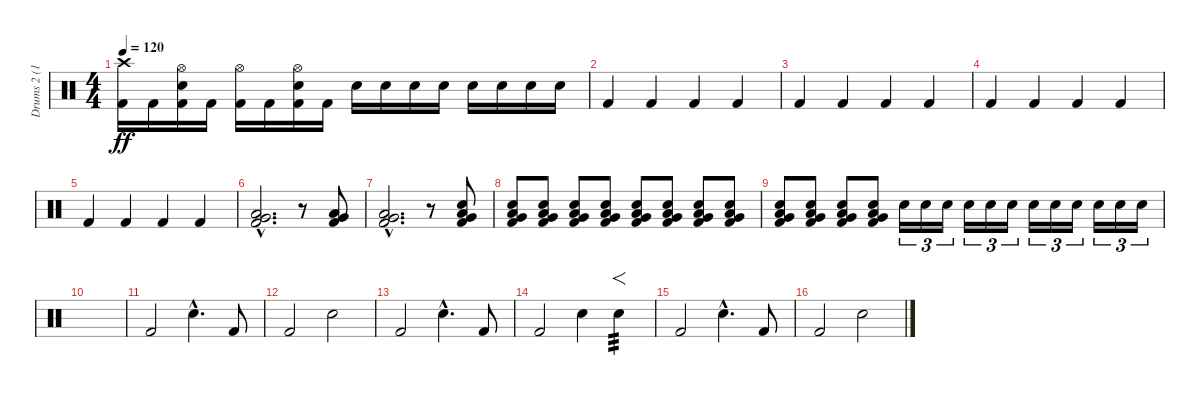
\track ("Drums 2 (16)" "Drums 2 (1") {instrument percussion}
\staff {score}
\articulation defaults
\ts (4 4)
\tempo 120
\clef neutral
\ks c
("Kick (hit) 2" "Crash high (hit)").16{dy ff} "Kick (hit) 2".16 ("Kick (hit) 2" "Snare (hit) 2" "Hi-Hat (open)").16 "Kick (hit) 2".16 ("Kick (hit) 2" "Hi-Hat (open)").16 "Kick (hit) 2".16 ("Kick (hit) 2" "Snare (hit) 2" "Hi-Hat (open)").16 "Kick (hit) 2".16 "Snare (hit) 2".16 "Snare (hit) 2".16 "Snare (hit) 2".16 "Snare (hit) 2".16 "Snare (hit) 2".16 "Snare (hit) 2".16 "Snare (hit) 2".16 "Snare (hit) 2".16 |
"Kick (hit) 2".4 "Kick (hit) 2".4 "Kick (hit) 2".4 "Kick (hit) 2".4 |
"Kick (hit) 2".4 "Kick (hit) 2".4 "Kick (hit) 2".4 "Kick (hit) 2".4 |
"Kick (hit) 2".4 "Kick (hit) 2".4 "Kick (hit) 2".4 "Kick (hit) 2".4 |
"Kick (hit) 2".4 "Kick (hit) 2".4 "Kick (hit) 2".4 "Kick (hit) 2".4 |
("Kick (hit) 2"{hac} "Low Floor Tom (hit)"{hac} "Very Low Tom (hit)"{hac}).2{d} r.8 ("Kick (hit) 2" "Low Floor Tom (hit)" "Very Low Tom (hit)").8 |
("Kick (hit) 2"{hac} "Low Floor Tom (hit)"{hac} "Very Low Tom (hit)"{hac}).2{d} r.8 ("Kick (hit) 2" "Snare (hit) 2" "Low Floor Tom (hit)" "Very Low Tom (hit)").8 |
("Kick (hit) 2" "Snare (hit) 2" "Low Floor Tom (hit)" "Very Low Tom (hit)").8{volume 4} ("Kick (hit) 2" "Snare (hit) 2" "Low Floor Tom (hit)" "Very Low Tom (hit)").8{volume 5} ("Kick (hit) 2" "Snare (hit) 2" "Low Floor Tom (hit)" "Very Low Tom (hit)").8{volume 6} ("Kick (hit) 2" "Snare (hit) 2" "Low Floor Tom (hit)" "Very Low Tom (hit)").8{volume 7} ("Kick (hit) 2" "Snare (hit) 2" "Low Floor Tom (hit)" "Very Low Tom (hit)").8{volume 8} ("Kick (hit) 2" "Snare (hit) 2" "Low Floor Tom (hit)" "Very Low Tom (hit)").8{volume 9} ("Kick (hit) 2" "Snare (hit) 2" "Low Floor Tom (hit)" "Very Low Tom (hit)").8{volume 10} ("Kick (hit) 2" "Snare (hit) 2" "Low Floor Tom (hit)" "Very Low Tom (hit)").8{volume 11} |
("Kick (hit) 2" "Snare (hit) 2" "Low Floor Tom (hit)" "Very Low Tom (hit)").8{volume 12} ("Kick (hit) 2" "Snare (hit) 2" "Low Floor Tom (hit)" "Very Low Tom (hit)").8{volume 13} ("Kick (hit) 2" "Snare (hit) 2" "Low Floor Tom (hit)" "Very Low Tom (hit)").8{volume 14} ("Kick (hit) 2" "Snare (hit) 2" "Low Floor Tom (hit)" "Very Low Tom (hit)").8{volume 15} "Snare (hit) 2".16{tu (3 2) volume 16 balance 15} "Snare (hit) 2".16{tu (3 2)} "Snare (hit) 2".16{tu (3 2) balance 15} "Snare (hit) 2".16{tu (3 2) balance 8} "Snare (hit) 2".16{tu (3 2)} "Snare (hit) 2".16{tu (3 2) balance 8} "Snare (hit) 2".16{tu (3 2) balance 1} "Snare (hit) 2".16{tu (3 2)} "Snare (hit) 2".16{tu (3 2) balance 1} "Snare (hit) 2".16{tu (3 2) balance 8} "Snare (hit) 2".16{tu (3 2)} "Snare (hit) 2".16{tu (3 2) balance 8} |
|
"Kick (hit) 2".2 "Snare (hit) 2"{hac}.4{d} "Kick (hit) 2".8 |
"Kick (hit) 2".2 "Snare (hit) 2".2 |
"Kick (hit) 2".2 "Snare (hit) 2"{hac}.4{d} "Kick (hit) 2".8 |
"Kick (hit) 2".2 "Snare (hit) 2".4 "Snare (hit) 2".4{f tp 3} |
"Kick (hit) 2".2 "Snare (hit) 2"{hac}.4{d} "Kick (hit) 2".8 |
"Kick (hit) 2".2 "Snare (hit) 2".2
